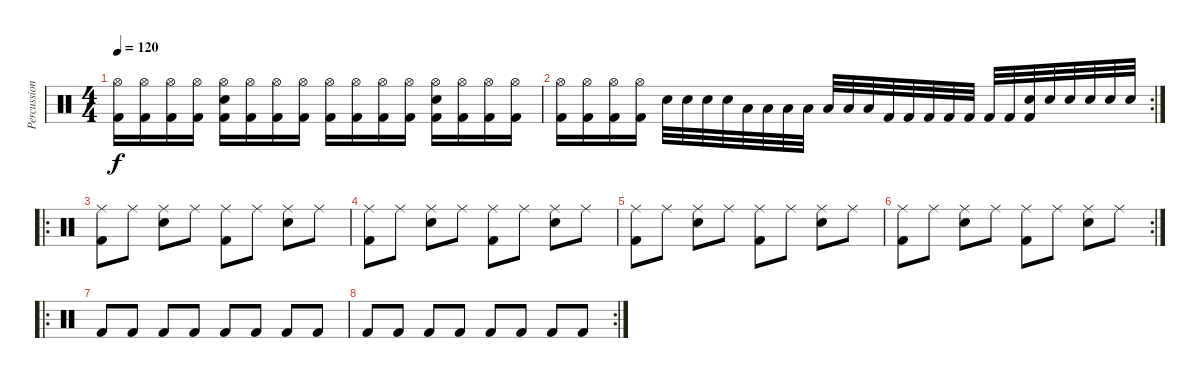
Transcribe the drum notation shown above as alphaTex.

\track ("Percussion" "Percussion") {instrument percussion}
\staff {score}
\articulation defaults
\ts (4 4)
\tempo 120
\clef neutral
\ks c
("Hi-Hat (open)" "Kick (hit) 2").16{dy f} ("Hi-Hat (open)" "Kick (hit) 2").16 ("Hi-Hat (open)" "Kick (hit) 2").16 ("Hi-Hat (open)" "Kick (hit) 2").16 ("Hi-Hat (open)" "Snare (hit) 2" "Kick (hit) 2").16 ("Hi-Hat (open)" "Kick (hit) 2").16 ("Hi-Hat (open)" "Kick (hit) 2").16 ("Hi-Hat (open)" "Kick (hit) 2").16 ("Hi-Hat (open)" "Kick (hit) 2").16 ("Hi-Hat (open)" "Kick (hit) 2").16 ("Hi-Hat (open)" "Kick (hit) 2").16 ("Hi-Hat (open)" "Kick (hit) 2").16 ("Hi-Hat (open)" "Snare (hit) 2" "Kick (hit) 2").16 ("Hi-Hat (open)" "Kick (hit) 2").16 ("Hi-Hat (open)" "Kick (hit) 2").16 ("Hi-Hat (open)" "Kick (hit) 2").16 |
\rc 2
("Hi-Hat (open)" "Kick (hit) 2").16 ("Hi-Hat (open)" "Kick (hit) 2").16 ("Hi-Hat (open)" "Kick (hit) 2").16 ("Hi-Hat (open)" "Kick (hit) 2").16 "Snare (hit) 2".32 "Snare (hit) 2".32 "Snare (hit) 2".32 "Snare (hit) 2".32 "Low Tom (hit)".32 "Low Tom (hit)".32 "Low Tom (hit)".32 "Low Tom (hit)".32 "Low Tom (hit)".32 "Low Tom (hit)".32 "Low Tom (hit)".32 "Kick (hit) 2".32 "Kick (hit) 2".32 "Kick (hit) 2".32 "Kick (hit) 2".32 "Kick (hit) 2".32 "Kick (hit) 2".32 "Kick (hit) 2".32 ("Snare (hit) 2" "Kick (hit) 2").32 "Snare (hit) 2".32 "Snare (hit) 2".32 "Snare (hit) 2".32 "Snare (hit) 2".32 "Snare (hit) 2".32 |
\ro
("Ride (middle)" "Kick (hit) 2").8 "Ride (middle)".8 ("Ride (middle)" "Snare (hit) 2").8 "Ride (middle)".8 ("Ride (middle)" "Kick (hit) 2").8 "Ride (middle)".8 ("Ride (middle)" "Snare (hit) 2").8 "Ride (middle)".8 |
("Ride (middle)" "Kick (hit) 2").8 "Ride (middle)".8 ("Ride (middle)" "Snare (hit) 2").8 "Ride (middle)".8 ("Ride (middle)" "Kick (hit) 2").8 "Ride (middle)".8 ("Ride (middle)" "Snare (hit) 2").8 "Ride (middle)".8 |
("Ride (middle)" "Kick (hit) 2").8 "Ride (middle)".8 ("Ride (middle)" "Snare (hit) 2").8 "Ride (middle)".8 ("Ride (middle)" "Kick (hit) 2").8 "Ride (middle)".8 ("Ride (middle)" "Snare (hit) 2").8 "Ride (middle)".8 |
\rc 2
("Ride (middle)" "Kick (hit) 2").8 "Ride (middle)".8 ("Ride (middle)" "Snare (hit) 2").8 "Ride (middle)".8 ("Ride (middle)" "Kick (hit) 2").8 "Ride (middle)".8 ("Ride (middle)" "Snare (hit) 2").8 "Ride (middle)".8 |
\ro "Kick (hit) 2".8 "Kick (hit) 2".8 "Kick (hit) 2".8 "Kick (hit) 2".8 "Kick (hit) 2".8 "Kick (hit) 2".8 "Kick (hit) 2".8 "Kick (hit) 2".8
|
\rc 2 "Kick (hit) 2".8 "Kick (hit) 2".8 "Kick (hit) 2".8 "Kick (hit) 2".8 "Kick (hit) 2".8 "Kick (hit) 2".8 "Kick (hit) 2".8 "Kick (hit) 2".8
